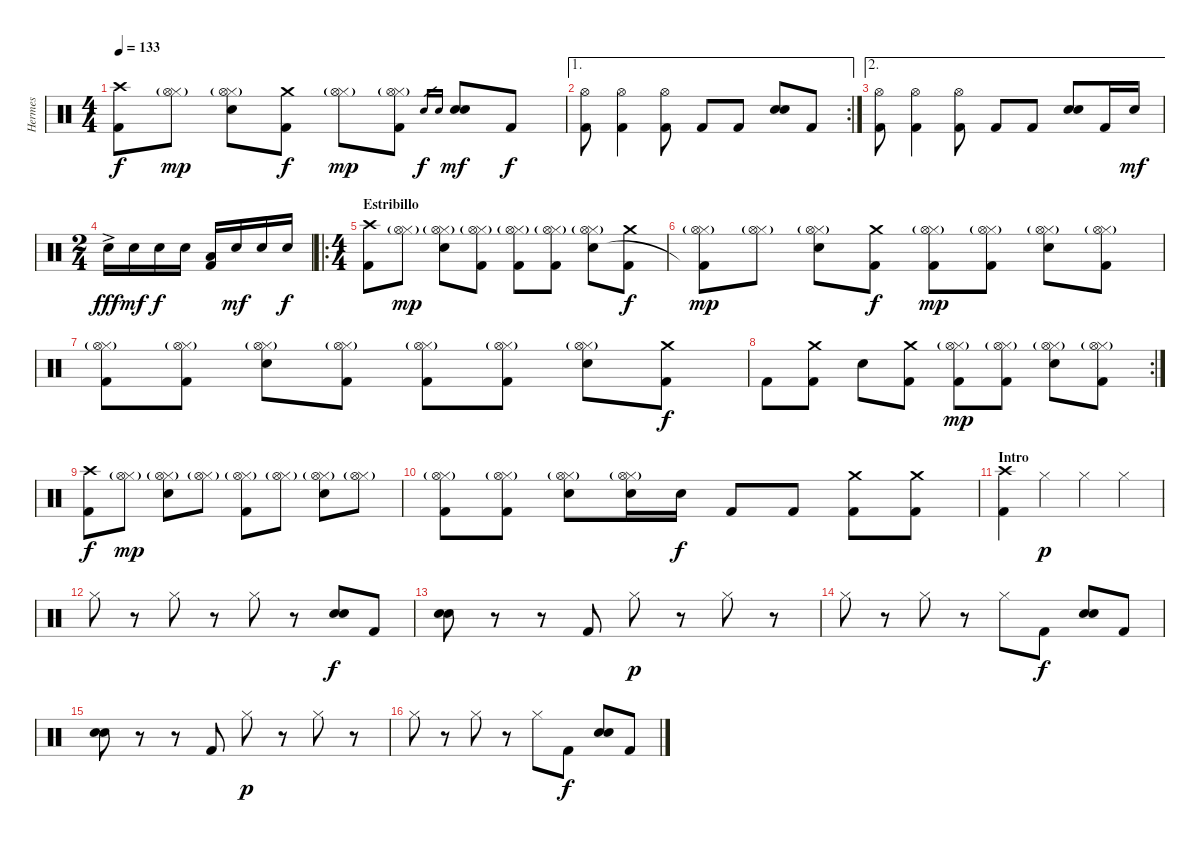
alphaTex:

\track ("Hermes" "Hermes") {instrument percussion}
\staff {score}
\articulation defaults
\ts (4 4)
\tempo 133
\clef neutral
\ks c
("Crash high (hit)" "Kick (hit) 2").8{dy f} ("Hi-Hat (closed)" "Hi-Hat (open)"{g}).8{dy mp} ("Hi-Hat (closed)" "Hi-Hat (open)"{g} "Snare (hit) 2").8 ("Crash medium (hit)" "Kick (hit) 2").8{dy f} ("Hi-Hat (closed)" "Hi-Hat (open)"{g}).8{dy mp} ("Hi-Hat (closed)" "Hi-Hat (open)"{g} "Kick (hit) 2").8 "Snare (hit) 2".16{gr dy f} "Snare (hit) 2".16{gr} ("Snare (hit) 2" "Snare (hit) 2").8{dy mf} "Kick (hit) 2".8{dy f} |
\ae 1
\rc 2
("Hi-Hat (open)" "Kick (hit) 2").8 ("Hi-Hat (open)" "Kick (hit) 2").4 ("Hi-Hat (open)" "Kick (hit) 2").8 "Kick (hit) 2".8 "Kick (hit) 2".8 ("Snare (hit) 2" "Snare (hit) 2").8 "Kick (hit) 2".8 |
\ae 2
("Hi-Hat (open)" "Kick (hit) 2").8 ("Hi-Hat (open)" "Kick (hit) 2").4 ("Hi-Hat (open)" "Kick (hit) 2").8 "Kick (hit) 2".8 "Kick (hit) 2".8 ("Snare (hit) 2" "Snare (hit) 2").8 "Kick (hit) 2".16 "Snare (hit) 2".16{dy mf} |
\ts (2 4)
"Snare (hit) 2"{ac}.16{dy fff} "Snare (hit) 2".16{dy mf} "Snare (hit) 2".16{dy f} "Snare (hit) 2".16 ("Low Floor Tom (hit)" "Kick (hit) 2").16 "Snare (hit) 2".16{dy mf} "Snare (hit) 2".16 "Snare (hit) 2".16{dy f} |
\ro
\ts (4 4)
\section ("" "Estribillo")
("Crash high (hit)" "Kick (hit) 2").8 ("Hi-Hat (closed)" "Hi-Hat (open)"{g}).8{dy mp} ("Hi-Hat (closed)" "Hi-Hat (open)"{g} "Snare (hit) 2").8 ("Hi-Hat (closed)" "Hi-Hat (open)"{g} "Kick (hit) 2").8 ("Hi-Hat (closed)" "Hi-Hat (open)"{g} "Kick (hit) 2").8 ("Hi-Hat (closed)" "Hi-Hat (open)"{g} "Kick (hit) 2").8 ("Hi-Hat (closed)" "Hi-Hat (open)"{g} "Snare (hit) 2").8 ("Crash medium (hit)" "Kick (hit) 2").8{dy f} |
("Hi-Hat (closed)" "Hi-Hat (open)"{g} "Kick (hit) 2"{t}).8{dy mp} ("Hi-Hat (closed)" "Hi-Hat (open)"{g}).8 ("Hi-Hat (closed)" "Hi-Hat (open)"{g} "Snare (hit) 2").8 ("Crash medium (hit)" "Kick (hit) 2").8{dy f} ("Hi-Hat (closed)" "Hi-Hat (open)"{g} "Kick (hit) 2").8{dy mp} ("Hi-Hat (closed)" "Hi-Hat (open)"{g} "Kick (hit) 2").8 ("Hi-Hat (closed)" "Hi-Hat (open)"{g} "Snare (hit) 2").8 ("Hi-Hat (closed)" "Hi-Hat (open)"{g} "Kick (hit) 2").8 |
("Hi-Hat (closed)" "Hi-Hat (open)"{g} "Kick (hit) 2").8 ("Hi-Hat (closed)" "Hi-Hat (open)"{g} "Kick (hit) 2").8 ("Hi-Hat (closed)" "Hi-Hat (open)"{g} "Snare (hit) 2").8 ("Hi-Hat (closed)" "Hi-Hat (open)"{g} "Kick (hit) 2").8 ("Hi-Hat (closed)" "Hi-Hat (open)"{g} "Kick (hit) 2").8 ("Hi-Hat (closed)" "Hi-Hat (open)"{g} "Kick (hit) 2").8 ("Hi-Hat (closed)" "Hi-Hat (open)"{g} "Snare (hit) 2").8 ("Crash medium (hit)" "Kick (hit) 2").8{dy f} |
\rc 2 "Kick (hit) 2".8
("Crash medium (hit)" "Kick (hit) 2").8 "Snare (hit) 2".8 ("Crash medium (hit)" "Kick (hit) 2").8 ("Hi-Hat (closed)" "Hi-Hat (open)"{g} "Kick (hit) 2").8{dy mp} ("Hi-Hat (closed)" "Hi-Hat (open)"{g} "Kick (hit) 2").8 ("Hi-Hat (closed)" "Hi-Hat (open)"{g} "Snare (hit) 2").8 ("Hi-Hat (closed)" "Hi-Hat (open)"{g} "Kick (hit) 2").8 |
("Crash high (hit)" "Kick (hit) 2").8{dy f} ("Hi-Hat (closed)" "Hi-Hat (open)"{g}).8{dy mp} ("Hi-Hat (closed)" "Hi-Hat (open)"{g} "Snare (hit) 2").8 ("Hi-Hat (closed)" "Hi-Hat (open)"{g}).8 ("Hi-Hat (closed)" "Hi-Hat (open)"{g} "Kick (hit) 2").8 ("Hi-Hat (closed)" "Hi-Hat (open)"{g}).8 ("Hi-Hat (closed)" "Hi-Hat (open)"{g} "Snare (hit) 2").8 ("Hi-Hat (closed)" "Hi-Hat (open)"{g}).8 |
("Hi-Hat (closed)" "Hi-Hat (open)"{g} "Kick (hit) 2").8 ("Hi-Hat (closed)" "Hi-Hat (open)"{g} "Kick (hit) 2").8 ("Hi-Hat (closed)" "Hi-Hat (open)"{g} "Snare (hit) 2").8 ("Hi-Hat (closed)" "Hi-Hat (open)"{g} "Snare (hit) 2").16 "Snare (hit) 2".16{dy f} "Kick (hit) 2".8 "Kick (hit) 2".8 ("Crash medium (hit)" "Kick (hit) 2").8 ("Crash medium (hit)" "Kick (hit) 2").8 |
\section ("" "Intro")
("Crash high (hit)" "Kick (hit) 2").4 "Hi-Hat (closed)".4{dy p} "Hi-Hat (closed)".4 "Hi-Hat (closed)".4 |
"Hi-Hat (closed)".8 r.8 "Hi-Hat (closed)".8 r.8 "Hi-Hat (closed)".8 r.8 ("Snare (hit) 2" "Snare (hit) 2").8{dy f} "Kick (hit) 2".8 |
("Snare (hit) 2" "Snare (hit) 2").8 r.8 r.8 "Kick (hit) 2".8 "Hi-Hat (closed)".8{dy p} r.8 "Hi-Hat (closed)".8 r.8 |
"Hi-Hat (closed)".8 r.8 "Hi-Hat (closed)".8 r.8 "Hi-Hat (closed)".8 "Kick (hit) 2".8{dy f} ("Snare (hit) 2" "Snare (hit) 2").8 "Kick (hit) 2".8 |
("Snare (hit) 2" "Snare (hit) 2").8 r.8 r.8 "Kick (hit) 2".8 "Hi-Hat (closed)".8{dy p} r.8 "Hi-Hat (closed)".8 r.8 |
"Hi-Hat (closed)".8 r.8 "Hi-Hat (closed)".8 r.8 "Hi-Hat (closed)".8 "Kick (hit) 2".8{dy f} ("Snare (hit) 2" "Snare (hit) 2").8 "Kick (hit) 2".8
